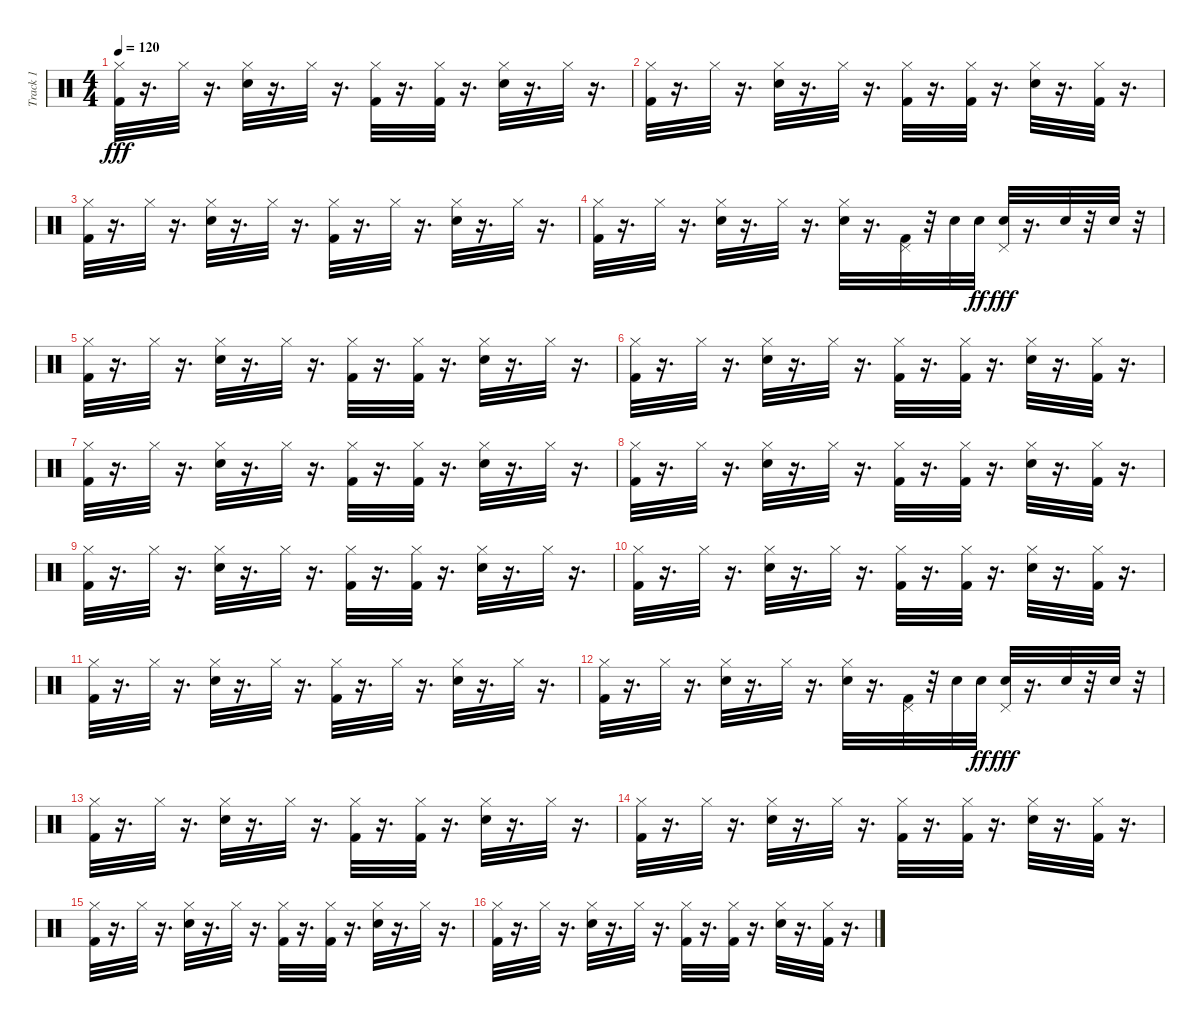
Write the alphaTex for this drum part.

\track ("Track 1" "Track 1") {instrument percussion}
\staff {score}
\articulation defaults
\ts (4 4)
\tempo 120
\clef neutral
\ks c
("Kick (hit) 2" "Hi-Hat (closed)").32{dy fff} r.16{d} "Hi-Hat (closed)".32 r.16{d} ("Hi-Hat (closed)" "Snare (hit) 2").32 r.16{d} "Hi-Hat (closed)".32 r.16{d} ("Kick (hit) 2" "Hi-Hat (closed)").32 r.16{d} ("Hi-Hat (closed)" "Kick (hit) 2").32 r.16{d} ("Hi-Hat (closed)" "Snare (hit) 2").32 r.16{d} "Hi-Hat (closed)".32 r.16{d} |
("Hi-Hat (closed)" "Kick (hit) 2").32 r.16{d} "Hi-Hat (closed)".32 r.16{d} ("Hi-Hat (closed)" "Snare (hit) 2").32 r.16{d} "Hi-Hat (closed)".32 r.16{d} ("Kick (hit) 2" "Hi-Hat (closed)").32 r.16{d} ("Hi-Hat (closed)" "Kick (hit) 2").32 r.16{d} ("Hi-Hat (closed)" "Snare (hit) 2").32 r.16{d} ("Hi-Hat (closed)" "Kick (hit) 2").32 r.16{d} |
("Kick (hit) 2" "Hi-Hat (closed)").32 r.16{d} "Hi-Hat (closed)".32 r.16{d} ("Hi-Hat (closed)" "Snare (hit) 2").32 r.16{d} "Hi-Hat (closed)".32 r.16{d} ("Kick (hit) 2" "Hi-Hat (closed)").32 r.16{d} "Hi-Hat (closed)".32 r.16{d} ("Snare (hit) 2" "Hi-Hat (closed)").32 r.16{d} "Hi-Hat (closed)".32 r.16{d} |
("Hi-Hat (closed)" "Kick (hit) 2").32 r.16{d} "Hi-Hat (closed)".32 r.16{d} ("Hi-Hat (closed)" "Snare (hit) 2").32 r.16{d} "Hi-Hat (closed)".32 r.16{d} ("Snare (hit) 2" "Hi-Hat (closed)").32 r.16{d} ("Kick (hit) 2" "Pedal Hi-Hat (hit)").32 r.32 "Snare (hit) 2".32 "Snare (hit) 2".32{dy ff} ("Pedal Hi-Hat (hit)" "Snare (hit) 2").32{dy fff} r.16{d} "Snare (hit) 2".32 r.32 "Snare (hit) 2".32 r.32 |
("Kick (hit) 2" "Hi-Hat (closed)").32 r.16{d} "Hi-Hat (closed)".32 r.16{d} ("Hi-Hat (closed)" "Snare (hit) 2").32 r.16{d} "Hi-Hat (closed)".32 r.16{d} ("Kick (hit) 2" "Hi-Hat (closed)").32 r.16{d} ("Hi-Hat (closed)" "Kick (hit) 2").32 r.16{d} ("Hi-Hat (closed)" "Snare (hit) 2").32 r.16{d} "Hi-Hat (closed)".32 r.16{d} |
("Hi-Hat (closed)" "Kick (hit) 2").32 r.16{d} "Hi-Hat (closed)".32 r.16{d} ("Hi-Hat (closed)" "Snare (hit) 2").32 r.16{d} "Hi-Hat (closed)".32 r.16{d} ("Kick (hit) 2" "Hi-Hat (closed)").32 r.16{d} ("Hi-Hat (closed)" "Kick (hit) 2").32 r.16{d} ("Hi-Hat (closed)" "Snare (hit) 2").32 r.16{d} ("Hi-Hat (closed)" "Kick (hit) 2").32 r.16{d} |
("Kick (hit) 2" "Hi-Hat (closed)").32 r.16{d} "Hi-Hat (closed)".32 r.16{d} ("Hi-Hat (closed)" "Snare (hit) 2").32 r.16{d} "Hi-Hat (closed)".32 r.16{d} ("Kick (hit) 2" "Hi-Hat (closed)").32 r.16{d} ("Hi-Hat (closed)" "Kick (hit) 2").32 r.16{d} ("Hi-Hat (closed)" "Snare (hit) 2").32 r.16{d} "Hi-Hat (closed)".32 r.16{d} |
("Hi-Hat (closed)" "Kick (hit) 2").32 r.16{d} "Hi-Hat (closed)".32 r.16{d} ("Hi-Hat (closed)" "Snare (hit) 2").32 r.16{d} "Hi-Hat (closed)".32 r.16{d} ("Kick (hit) 2" "Hi-Hat (closed)").32 r.16{d} ("Hi-Hat (closed)" "Kick (hit) 2").32 r.16{d} ("Hi-Hat (closed)" "Snare (hit) 2").32 r.16{d} ("Hi-Hat (closed)" "Kick (hit) 2").32 r.16{d} |
("Kick (hit) 2" "Hi-Hat (closed)").32 r.16{d} "Hi-Hat (closed)".32 r.16{d} ("Hi-Hat (closed)" "Snare (hit) 2").32 r.16{d} "Hi-Hat (closed)".32 r.16{d} ("Kick (hit) 2" "Hi-Hat (closed)").32 r.16{d} ("Hi-Hat (closed)" "Kick (hit) 2").32 r.16{d} ("Hi-Hat (closed)" "Snare (hit) 2").32 r.16{d} "Hi-Hat (closed)".32 r.16{d} |
("Hi-Hat (closed)" "Kick (hit) 2").32 r.16{d} "Hi-Hat (closed)".32 r.16{d} ("Hi-Hat (closed)" "Snare (hit) 2").32 r.16{d} "Hi-Hat (closed)".32 r.16{d} ("Kick (hit) 2" "Hi-Hat (closed)").32 r.16{d} ("Hi-Hat (closed)" "Kick (hit) 2").32 r.16{d} ("Hi-Hat (closed)" "Snare (hit) 2").32 r.16{d} ("Hi-Hat (closed)" "Kick (hit) 2").32 r.16{d} |
("Kick (hit) 2" "Hi-Hat (closed)").32 r.16{d} "Hi-Hat (closed)".32 r.16{d} ("Hi-Hat (closed)" "Snare (hit) 2").32 r.16{d} "Hi-Hat (closed)".32 r.16{d} ("Kick (hit) 2" "Hi-Hat (closed)").32 r.16{d} "Hi-Hat (closed)".32 r.16{d} ("Snare (hit) 2" "Hi-Hat (closed)").32 r.16{d} "Hi-Hat (closed)".32 r.16{d} |
("Hi-Hat (closed)" "Kick (hit) 2").32 r.16{d} "Hi-Hat (closed)".32 r.16{d} ("Hi-Hat (closed)" "Snare (hit) 2").32 r.16{d} "Hi-Hat (closed)".32 r.16{d} ("Snare (hit) 2" "Hi-Hat (closed)").32 r.16{d} ("Kick (hit) 2" "Pedal Hi-Hat (hit)").32 r.32 "Snare (hit) 2".32 "Snare (hit) 2".32{dy ff} ("Pedal Hi-Hat (hit)" "Snare (hit) 2").32{dy fff} r.16{d} "Snare (hit) 2".32 r.32 "Snare (hit) 2".32 r.32 |
("Kick (hit) 2" "Hi-Hat (closed)").32 r.16{d} "Hi-Hat (closed)".32 r.16{d} ("Hi-Hat (closed)" "Snare (hit) 2").32 r.16{d} "Hi-Hat (closed)".32 r.16{d} ("Kick (hit) 2" "Hi-Hat (closed)").32 r.16{d} ("Hi-Hat (closed)" "Kick (hit) 2").32 r.16{d} ("Hi-Hat (closed)" "Snare (hit) 2").32 r.16{d} "Hi-Hat (closed)".32 r.16{d} |
("Hi-Hat (closed)" "Kick (hit) 2").32 r.16{d} "Hi-Hat (closed)".32 r.16{d} ("Hi-Hat (closed)" "Snare (hit) 2").32 r.16{d} "Hi-Hat (closed)".32 r.16{d} ("Kick (hit) 2" "Hi-Hat (closed)").32 r.16{d} ("Hi-Hat (closed)" "Kick (hit) 2").32 r.16{d} ("Hi-Hat (closed)" "Snare (hit) 2").32 r.16{d} ("Hi-Hat (closed)" "Kick (hit) 2").32 r.16{d} |
("Kick (hit) 2" "Hi-Hat (closed)").32 r.16{d} "Hi-Hat (closed)".32 r.16{d} ("Hi-Hat (closed)" "Snare (hit) 2").32 r.16{d} "Hi-Hat (closed)".32 r.16{d} ("Kick (hit) 2" "Hi-Hat (closed)").32 r.16{d} ("Hi-Hat (closed)" "Kick (hit) 2").32 r.16{d} ("Hi-Hat (closed)" "Snare (hit) 2").32 r.16{d} "Hi-Hat (closed)".32 r.16{d} |
("Hi-Hat (closed)" "Kick (hit) 2").32 r.16{d} "Hi-Hat (closed)".32 r.16{d} ("Hi-Hat (closed)" "Snare (hit) 2").32 r.16{d} "Hi-Hat (closed)".32 r.16{d} ("Kick (hit) 2" "Hi-Hat (closed)").32 r.16{d} ("Hi-Hat (closed)" "Kick (hit) 2").32 r.16{d} ("Hi-Hat (closed)" "Snare (hit) 2").32 r.16{d} ("Hi-Hat (closed)" "Kick (hit) 2").32 r.16{d}
